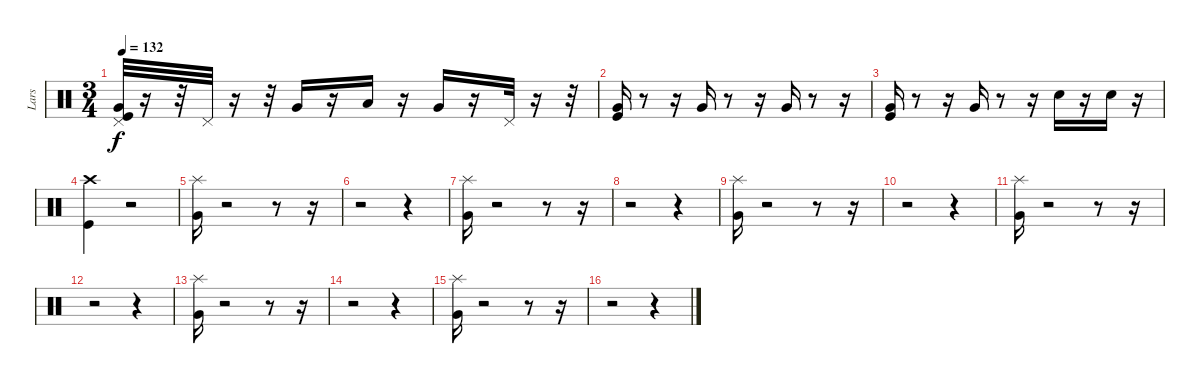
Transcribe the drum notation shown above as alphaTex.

\track ("Lars" "Lars") {instrument percussion}
\staff {score}
\articulation defaults
\ts (3 4)
\tempo 132
\clef neutral
\ks c
("Pedal Hi-Hat (hit)" "Kick (hit)" "Very Low Tom (hit)").32{dy f} r.16 r.32 "Pedal Hi-Hat (hit)".32 r.16 r.32 "Very Low Tom (hit)".16 r.16 "Low Tom (hit)".16 r.16 "Very Low Tom (hit)".16 r.16 "Pedal Hi-Hat (hit)".32 r.16 r.32 |
("Very Low Tom (hit)" "Kick (hit)").16 r.8 r.16 "Very Low Tom (hit)".16 r.8 r.16 "Very Low Tom (hit)".16 r.8 r.16 |
("Kick (hit)" "Very Low Tom (hit)").16 r.8 r.16 "Very Low Tom (hit)".16 r.8 r.16 "Snare (hit) 2".16 r.16 "Snare (hit) 2".16 r.16 |
("Kick (hit)" "Crash high (hit)").4 r.2 |
("Splash (hit)" "Very Low Tom (hit)").16 r.2 r.8 r.16 |
r.2 r.4 |
("Very Low Tom (hit)" "Splash (hit)").16 r.2 r.8 r.16 |
r.2 r.4 |
("Very Low Tom (hit)" "Splash (hit)").16 r.2 r.8 r.16 |
r.2 r.4 |
("Very Low Tom (hit)" "Splash (hit)").16 r.2 r.8 r.16 |
r.2 r.4 |
("Very Low Tom (hit)" "Splash (hit)").16 r.2 r.8 r.16 |
r.2 r.4 |
("Very Low Tom (hit)" "Splash (hit)").16 r.2 r.8 r.16 |
r.2 r.4
